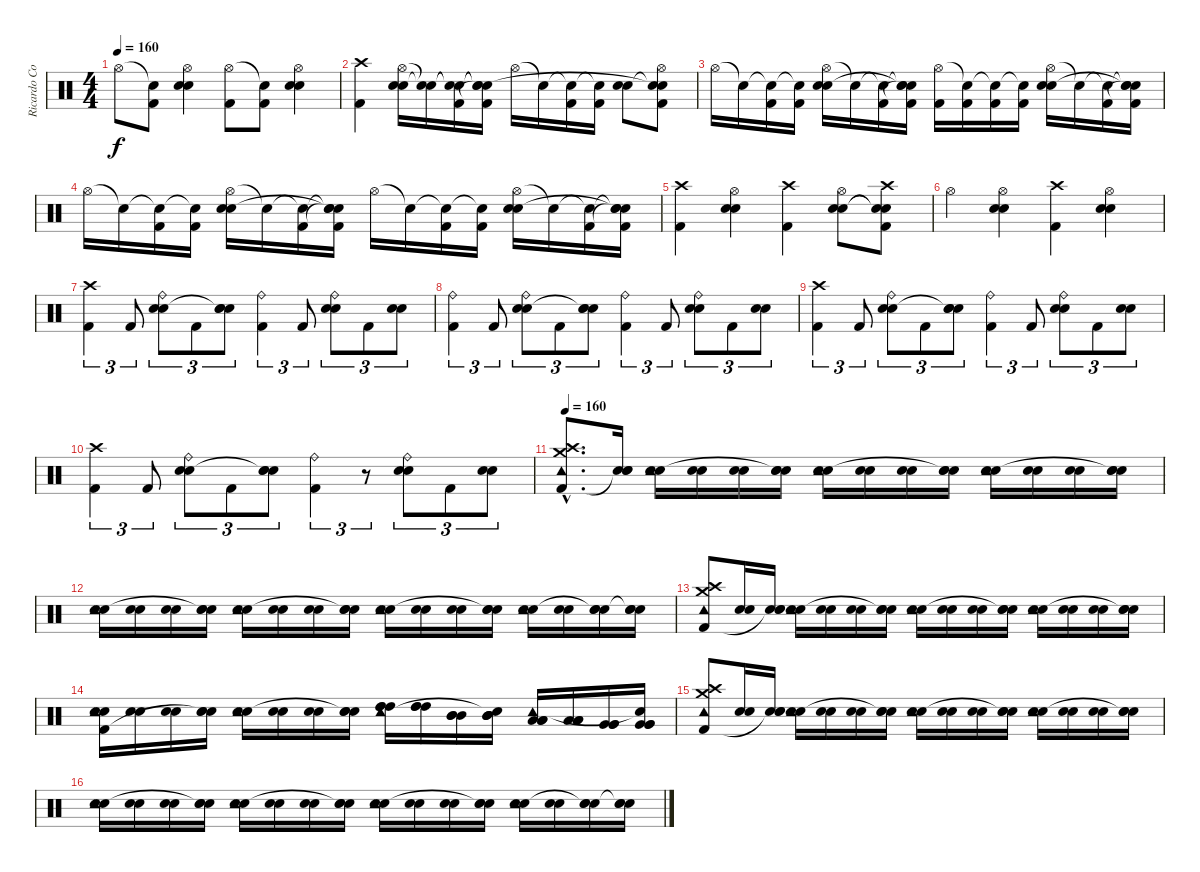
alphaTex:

\track ("Ricardo Confessori" "Ricardo Co") {instrument percussion}
\staff {score}
\articulation defaults
\ts (4 4)
\tempo 160
\clef neutral
\ks c "Hi-Hat (open)".8{dy f}
("Snare (hit)"{t} "Kick (hit) 2").8 ("Hi-Hat (open)" "Electric Snare (hit)" "Snare (hit) 2").4 ("Hi-Hat (open)" "Kick (hit) 2").8 ("Snare (hit)"{t} "Kick (hit) 2").8 ("Hi-Hat (open)" "Electric Snare (hit)" "Snare (hit) 2").4 |
("Crash high (hit)" "Kick (hit) 2").4 ("Hi-Hat (open)" "Electric Snare (hit)" "Snare (hit) 2").16 ("Snare (hit)"{t} "Snare (hit)"{t}).16 ("Snare (hit)"{t} "Snare (hit)"{t} "Kick (hit) 2").16 ("Snare (hit)"{t} "Snare (hit)"{t} "Snare (hit)"{t} "Kick (hit) 2").16 "Hi-Hat (open)".16 "Snare (hit)"{t}.16 ("Snare (hit)"{t} "Kick (hit) 2").16 ("Snare (hit)"{t} "Kick (hit) 2").16 ("Electric Snare (hit)" "Snare (hit) 2").8 ("Hi-Hat (open)" "Snare (hit)"{t} "Snare (hit)"{t} "Kick (hit) 2").8 |
"Hi-Hat (open)".16 "Snare (hit)"{t}.16 ("Snare (hit)"{t} "Kick (hit) 2").16 ("Snare (hit)"{t} "Kick (hit) 2").16 ("Hi-Hat (open)" "Electric Snare (hit)" "Snare (hit) 2").16 "Snare (hit)"{t}.16 ("Snare (hit)"{t} "Kick (hit) 2").16 ("Snare (hit)"{t} "Snare (hit)"{t} "Snare (hit)"{t} "Kick (hit) 2").16 ("Hi-Hat (open)" "Kick (hit) 2").16 ("Snare (hit)"{t} "Kick (hit) 2").16 ("Snare (hit)"{t} "Kick (hit) 2").16 ("Snare (hit)"{t} "Kick (hit) 2").16 ("Hi-Hat (open)" "Electric Snare (hit)" "Snare (hit) 2").16 "Snare (hit)"{t}.16 ("Snare (hit)"{t} "Kick (hit) 2").16 ("Snare (hit)"{t} "Snare (hit)"{t} "Snare (hit)"{t} "Kick (hit) 2").16 |
"Hi-Hat (open)".16 "Snare (hit)"{t}.16 ("Snare (hit)"{t} "Kick (hit) 2").16 ("Snare (hit)"{t} "Kick (hit) 2").16 ("Hi-Hat (open)" "Electric Snare (hit)" "Snare (hit) 2").16 "Snare (hit)"{t}.16 ("Snare (hit)"{t} "Kick (hit) 2").16 ("Snare (hit)"{t} "Snare (hit)"{t} "Snare (hit)"{t} "Kick (hit) 2").16 "Hi-Hat (open)".16 "Snare (hit)"{t}.16 ("Snare (hit)"{t} "Kick (hit) 2").16 ("Snare (hit)"{t} "Kick (hit) 2").16 ("Hi-Hat (open)" "Electric Snare (hit)" "Snare (hit) 2").16 "Snare (hit)"{t}.16 ("Snare (hit)"{t} "Kick (hit) 2").16 ("Snare (hit)"{t} "Snare (hit)"{t} "Snare (hit)"{t} "Kick (hit) 2").16 |
("Crash high (hit)" "Kick (hit) 2").4 ("Hi-Hat (open)" "Electric Snare (hit)" "Snare (hit) 2").4 ("Crash high (hit)" "Kick (hit) 2").4 ("Hi-Hat (open)" "Electric Snare (hit)" "Snare (hit) 2").8 ("Crash high (hit)" "Snare (hit)"{t} "Snare (hit)"{t} "Kick (hit) 2").8 |
"Hi-Hat (open)".4 ("Hi-Hat (open)" "Electric Snare (hit)" "Snare (hit) 2").4 ("Crash high (hit)" "Kick (hit) 2").4 ("Hi-Hat (open)" "Electric Snare (hit)" "Snare (hit) 2").4 |
("Crash high (hit)" "Kick (hit) 2").4{tu (3 2)} "Kick (hit) 2".8{tu (3 2)} ("Ride (bell)" "Electric Snare (hit)" "Snare (hit) 2").8{tu (3 2)} "Kick (hit) 2".8{tu (3 2)} ("Electric Snare (hit)" "Snare (hit) 2" "Snare (hit)"{t}).8{tu (3 2)} ("Ride (bell)" "Kick (hit) 2").4{tu (3 2)} "Kick (hit) 2".8{tu (3 2)} ("Ride (bell)" "Electric Snare (hit)" "Snare (hit) 2").8{tu (3 2)} "Kick (hit) 2".8{tu (3 2)} ("Electric Snare (hit)" "Snare (hit) 2").8{tu (3 2)} |
("Ride (bell)" "Kick (hit) 2").4{tu (3 2)} "Kick (hit) 2".8{tu (3 2)} ("Ride (bell)" "Electric Snare (hit)" "Snare (hit) 2").8{tu (3 2)} "Kick (hit) 2".8{tu (3 2)} ("Electric Snare (hit)" "Snare (hit) 2" "Snare (hit)"{t}).8{tu (3 2)} ("Ride (bell)" "Kick (hit) 2").4{tu (3 2)} "Kick (hit) 2".8{tu (3 2)} ("Ride (bell)" "Electric Snare (hit)" "Snare (hit) 2").8{tu (3 2)} "Kick (hit) 2".8{tu (3 2)} ("Electric Snare (hit)" "Snare (hit) 2").8{tu (3 2)} |
("Crash high (hit)" "Kick (hit) 2").4{tu (3 2)} "Kick (hit) 2".8{tu (3 2)} ("Ride (bell)" "Electric Snare (hit)" "Snare (hit) 2").8{tu (3 2)} "Kick (hit) 2".8{tu (3 2)} ("Electric Snare (hit)" "Snare (hit) 2" "Snare (hit)"{t}).8{tu (3 2)} ("Ride (bell)" "Kick (hit) 2").4{tu (3 2)} "Kick (hit) 2".8{tu (3 2)} ("Ride (bell)" "Electric Snare (hit)" "Snare (hit) 2").8{tu (3 2)} "Kick (hit) 2".8{tu (3 2)} ("Electric Snare (hit)" "Snare (hit) 2").8{tu (3 2)} |
("Crash high (hit)" "Kick (hit) 2").4{tu (3 2)} "Kick (hit) 2".8{tu (3 2)} ("Ride (bell)" "Electric Snare (hit)" "Snare (hit) 2").8{tu (3 2)} "Kick (hit) 2".8{tu (3 2)} ("Electric Snare (hit)" "Snare (hit) 2" "Snare (hit)"{t}).8{tu (3 2)} ("Ride (bell)" "Kick (hit) 2").4{tu (3 2)} r.8{tu (3 2)} ("Ride (bell)" "Electric Snare (hit)" "Snare (hit) 2").8{tu (3 2)} "Kick (hit) 2".8{tu (3 2)} ("Electric Snare (hit)" "Snare (hit) 2").8{tu (3 2)} |
\tempo 160
("Crash high (hit)"{hac} "Crash medium (hit)"{hac} "Kick (hit) 2"{hac} "Tambourine (hit)"{hac}).8{d volume 11} ("Electric Snare (hit)" "Snare (hit) 2" "Snare (hit)"{t}).16 ("Electric Snare (hit)" "Snare (hit) 2" "Tambourine (hit)").16 ("Electric Snare (hit)" "Snare (hit) 2").16 ("Electric Snare (hit)" "Snare (hit) 2").16 ("Electric Snare (hit)" "Snare (hit) 2" "Snare (hit)"{t}).16 ("Electric Snare (hit)" "Snare (hit) 2" "Tambourine (hit)").16 ("Electric Snare (hit)" "Snare (hit) 2").16 ("Electric Snare (hit)" "Snare (hit) 2").16 ("Electric Snare (hit)" "Snare (hit) 2" "Snare (hit)"{t}).16 ("Electric Snare (hit)" "Snare (hit) 2" "Tambourine (hit)").16 ("Electric Snare (hit)" "Snare (hit) 2").16 ("Electric Snare (hit)" "Snare (hit) 2").16 ("Electric Snare (hit)" "Snare (hit) 2" "Snare (hit)"{t}).16 |
("Electric Snare (hit)" "Snare (hit) 2" "Tambourine (hit)").16 ("Electric Snare (hit)" "Snare (hit) 2").16 ("Electric Snare (hit)" "Snare (hit) 2").16 ("Electric Snare (hit)" "Snare (hit) 2" "Snare (hit)"{t}).16 ("Electric Snare (hit)" "Snare (hit) 2" "Tambourine (hit)").16 ("Electric Snare (hit)" "Snare (hit) 2").16 ("Electric Snare (hit)" "Snare (hit) 2").16 ("Electric Snare (hit)" "Snare (hit) 2" "Snare (hit)"{t}).16 ("Electric Snare (hit)" "Snare (hit) 2" "Tambourine (hit)").16 ("Electric Snare (hit)" "Snare (hit) 2").16 ("Electric Snare (hit)" "Snare (hit) 2").16 ("Electric Snare (hit)" "Snare (hit) 2" "Snare (hit)"{t}).16 ("Electric Snare (hit)" "Snare (hit) 2" "Tambourine (hit)").16 ("Electric Snare (hit)" "Snare (hit) 2").16 ("Electric Snare (hit)" "Snare (hit) 2" "Snare (hit)"{t}).16 ("Electric Snare (hit)" "Snare (hit) 2" "Snare (hit)"{t}).16 |
("Crash high (hit)" "Crash medium (hit)" "Kick (hit) 2" "Tambourine (hit)").8 ("Electric Snare (hit)" "Snare (hit) 2").16 ("Electric Snare (hit)" "Snare (hit) 2" "Snare (hit)"{t}).16 ("Electric Snare (hit)" "Snare (hit) 2" "Tambourine (hit)").16 ("Electric Snare (hit)" "Snare (hit) 2").16 ("Electric Snare (hit)" "Snare (hit) 2").16 ("Electric Snare (hit)" "Snare (hit) 2" "Snare (hit)"{t}).16 ("Electric Snare (hit)" "Snare (hit) 2" "Tambourine (hit)").16 ("Electric Snare (hit)" "Snare (hit) 2").16 ("Electric Snare (hit)" "Snare (hit) 2").16 ("Electric Snare (hit)" "Snare (hit) 2" "Snare (hit)"{t}).16 ("Electric Snare (hit)" "Snare (hit) 2" "Tambourine (hit)").16 ("Electric Snare (hit)" "Snare (hit) 2").16 ("Electric Snare (hit)" "Snare (hit) 2").16 ("Electric Snare (hit)" "Snare (hit) 2" "Snare (hit)"{t}).16 |
("Electric Snare (hit)" "Snare (hit) 2" "Kick (hit) 2" "Tambourine (hit)").16 ("Electric Snare (hit)" "Snare (hit) 2").16 ("Electric Snare (hit)" "Snare (hit) 2").16 ("Electric Snare (hit)" "Snare (hit) 2" "Snare (hit)"{t}).16 ("Electric Snare (hit)" "Snare (hit) 2" "Tambourine (hit)").16 ("Electric Snare (hit)" "Snare (hit) 2").16 ("Electric Snare (hit)" "Snare (hit) 2").16 ("Electric Snare (hit)" "Snare (hit) 2" "Snare (hit)"{t}).16 ("High Tom (hit)" "High Tom (hit)" "High Tom (hit)" "Tambourine (hit)").16 ("High Tom (hit)" "High Tom (hit)" "High Tom (hit)").16 ("Mid Tom (hit)" "Mid Tom (hit)" "Mid Tom (hit)").16 ("Mid Tom (hit)" "Mid Tom (hit)" "Mid Tom (hit)" "Snare (hit)"{t}).16 ("Low Tom (hit)" "Low Tom (hit)" "Low Tom (hit)" "Tambourine (hit)").16 ("Low Tom (hit)" "Low Tom (hit)" "Low Tom (hit)").16 ("Very Low Tom (hit)" "Very Low Tom (hit)" "Very Low Tom (hit)").16 ("Very Low Tom (hit)" "Very Low Tom (hit)" "Very Low Tom (hit)" "Snare (hit)"{t}).16 |
("Crash high (hit)" "Crash medium (hit)" "Kick (hit) 2" "Tambourine (hit)").8 ("Snare (hit) 2" "Electric Snare (hit)").16 ("Snare (hit) 2" "Electric Snare (hit)" "Snare (hit)"{t}).16 ("Snare (hit) 2" "Electric Snare (hit)" "Tambourine (hit)").16 ("Snare (hit) 2" "Electric Snare (hit)").16 ("Snare (hit) 2" "Electric Snare (hit)").16 ("Snare (hit) 2" "Electric Snare (hit)" "Snare (hit)"{t}).16 ("Snare (hit) 2" "Electric Snare (hit)" "Tambourine (hit)").16 ("Snare (hit) 2" "Electric Snare (hit)").16 ("Snare (hit) 2" "Electric Snare (hit)").16 ("Snare (hit) 2" "Electric Snare (hit)" "Snare (hit)"{t}).16 ("Snare (hit) 2" "Electric Snare (hit)" "Tambourine (hit)").16 ("Snare (hit) 2" "Electric Snare (hit)").16 ("Snare (hit) 2" "Electric Snare (hit)").16 ("Snare (hit) 2" "Electric Snare (hit)" "Snare (hit)"{t}).16 |
("Electric Snare (hit)" "Snare (hit) 2" "Tambourine (hit)").16 ("Electric Snare (hit)" "Snare (hit) 2").16 ("Electric Snare (hit)" "Snare (hit) 2").16 ("Electric Snare (hit)" "Snare (hit) 2" "Snare (hit)"{t}).16 ("Electric Snare (hit)" "Snare (hit) 2" "Tambourine (hit)").16 ("Electric Snare (hit)" "Snare (hit) 2").16 ("Electric Snare (hit)" "Snare (hit) 2").16 ("Electric Snare (hit)" "Snare (hit) 2" "Snare (hit)"{t}).16 ("Electric Snare (hit)" "Snare (hit) 2" "Tambourine (hit)").16 ("Electric Snare (hit)" "Snare (hit) 2").16 ("Electric Snare (hit)" "Snare (hit) 2").16 ("Electric Snare (hit)" "Snare (hit) 2" "Snare (hit)"{t}).16 ("Electric Snare (hit)" "Snare (hit) 2" "Tambourine (hit)").16 ("Electric Snare (hit)" "Snare (hit) 2").16 ("Electric Snare (hit)" "Snare (hit) 2" "Snare (hit)"{t}).16 ("Electric Snare (hit)" "Snare (hit) 2" "Snare (hit)"{t}).16
